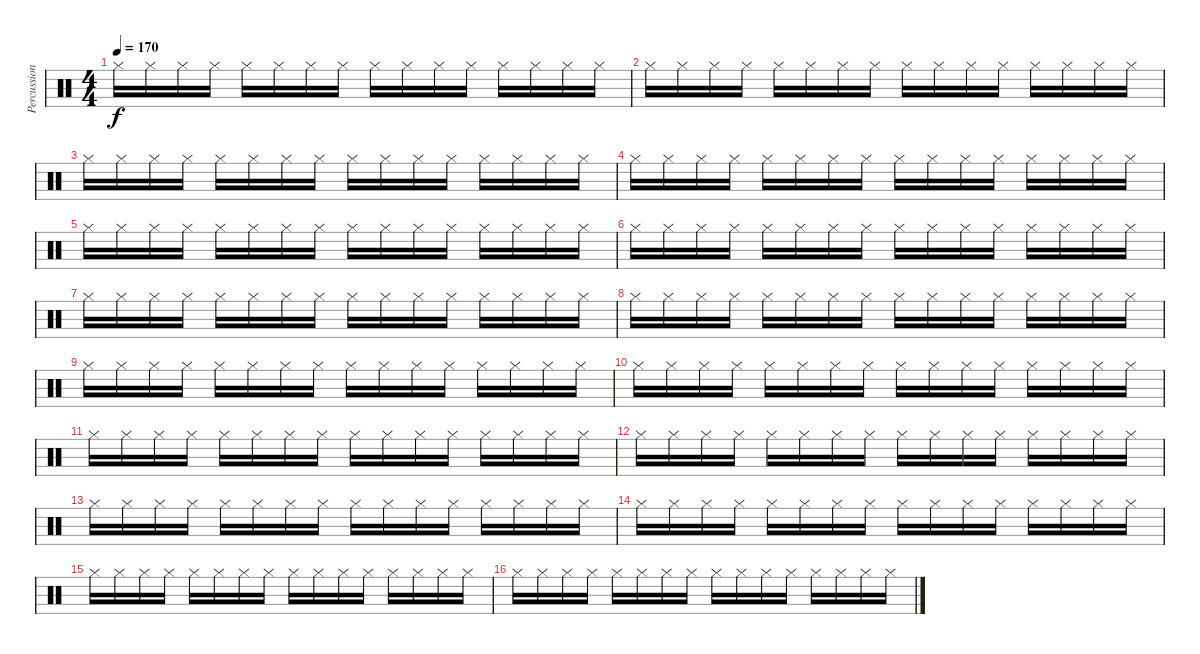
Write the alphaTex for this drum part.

\track ("Percussion" "Percussion") {instrument percussion}
\staff {score}
\articulation defaults
\ts (4 4)
\tempo 170
\clef neutral
\ks c "Hi-Hat (closed)".16{dy f} "Hi-Hat (closed)".16 "Hi-Hat (closed)".16 "Hi-Hat (closed)".16 "Hi-Hat (closed)".16 "Hi-Hat (closed)".16 "Hi-Hat (closed)".16 "Hi-Hat (closed)".16 "Hi-Hat (closed)".16 "Hi-Hat (closed)".16 "Hi-Hat (closed)".16 "Hi-Hat (closed)".16 "Hi-Hat (closed)".16 "Hi-Hat (closed)".16 "Hi-Hat (closed)".16 "Hi-Hat (closed)".16
|
"Hi-Hat (closed)".16 "Hi-Hat (closed)".16 "Hi-Hat (closed)".16 "Hi-Hat (closed)".16 "Hi-Hat (closed)".16 "Hi-Hat (closed)".16 "Hi-Hat (closed)".16 "Hi-Hat (closed)".16 "Hi-Hat (closed)".16 "Hi-Hat (closed)".16 "Hi-Hat (closed)".16 "Hi-Hat (closed)".16 "Hi-Hat (closed)".16 "Hi-Hat (closed)".16 "Hi-Hat (closed)".16 "Hi-Hat (closed)".16 |
"Hi-Hat (closed)".16 "Hi-Hat (closed)".16 "Hi-Hat (closed)".16 "Hi-Hat (closed)".16 "Hi-Hat (closed)".16 "Hi-Hat (closed)".16 "Hi-Hat (closed)".16 "Hi-Hat (closed)".16 "Hi-Hat (closed)".16 "Hi-Hat (closed)".16 "Hi-Hat (closed)".16 "Hi-Hat (closed)".16 "Hi-Hat (closed)".16 "Hi-Hat (closed)".16 "Hi-Hat (closed)".16 "Hi-Hat (closed)".16 |
"Hi-Hat (closed)".16 "Hi-Hat (closed)".16 "Hi-Hat (closed)".16 "Hi-Hat (closed)".16 "Hi-Hat (closed)".16 "Hi-Hat (closed)".16 "Hi-Hat (closed)".16 "Hi-Hat (closed)".16 "Hi-Hat (closed)".16 "Hi-Hat (closed)".16 "Hi-Hat (closed)".16 "Hi-Hat (closed)".16 "Hi-Hat (closed)".16 "Hi-Hat (closed)".16 "Hi-Hat (closed)".16 "Hi-Hat (closed)".16 |
"Hi-Hat (closed)".16 "Hi-Hat (closed)".16 "Hi-Hat (closed)".16 "Hi-Hat (closed)".16 "Hi-Hat (closed)".16 "Hi-Hat (closed)".16 "Hi-Hat (closed)".16 "Hi-Hat (closed)".16 "Hi-Hat (closed)".16 "Hi-Hat (closed)".16 "Hi-Hat (closed)".16 "Hi-Hat (closed)".16 "Hi-Hat (closed)".16 "Hi-Hat (closed)".16 "Hi-Hat (closed)".16 "Hi-Hat (closed)".16 |
"Hi-Hat (closed)".16 "Hi-Hat (closed)".16 "Hi-Hat (closed)".16 "Hi-Hat (closed)".16 "Hi-Hat (closed)".16 "Hi-Hat (closed)".16 "Hi-Hat (closed)".16 "Hi-Hat (closed)".16 "Hi-Hat (closed)".16 "Hi-Hat (closed)".16 "Hi-Hat (closed)".16 "Hi-Hat (closed)".16 "Hi-Hat (closed)".16 "Hi-Hat (closed)".16 "Hi-Hat (closed)".16 "Hi-Hat (closed)".16 |
"Hi-Hat (closed)".16 "Hi-Hat (closed)".16 "Hi-Hat (closed)".16 "Hi-Hat (closed)".16 "Hi-Hat (closed)".16 "Hi-Hat (closed)".16 "Hi-Hat (closed)".16 "Hi-Hat (closed)".16 "Hi-Hat (closed)".16 "Hi-Hat (closed)".16 "Hi-Hat (closed)".16 "Hi-Hat (closed)".16 "Hi-Hat (closed)".16 "Hi-Hat (closed)".16 "Hi-Hat (closed)".16 "Hi-Hat (closed)".16 |
"Hi-Hat (closed)".16 "Hi-Hat (closed)".16 "Hi-Hat (closed)".16 "Hi-Hat (closed)".16 "Hi-Hat (closed)".16 "Hi-Hat (closed)".16 "Hi-Hat (closed)".16 "Hi-Hat (closed)".16 "Hi-Hat (closed)".16 "Hi-Hat (closed)".16 "Hi-Hat (closed)".16 "Hi-Hat (closed)".16 "Hi-Hat (closed)".16 "Hi-Hat (closed)".16 "Hi-Hat (closed)".16 "Hi-Hat (closed)".16 |
"Hi-Hat (closed)".16 "Hi-Hat (closed)".16 "Hi-Hat (closed)".16 "Hi-Hat (closed)".16 "Hi-Hat (closed)".16 "Hi-Hat (closed)".16 "Hi-Hat (closed)".16 "Hi-Hat (closed)".16 "Hi-Hat (closed)".16 "Hi-Hat (closed)".16 "Hi-Hat (closed)".16 "Hi-Hat (closed)".16 "Hi-Hat (closed)".16 "Hi-Hat (closed)".16 "Hi-Hat (closed)".16 "Hi-Hat (closed)".16 |
"Hi-Hat (closed)".16 "Hi-Hat (closed)".16 "Hi-Hat (closed)".16 "Hi-Hat (closed)".16 "Hi-Hat (closed)".16 "Hi-Hat (closed)".16 "Hi-Hat (closed)".16 "Hi-Hat (closed)".16 "Hi-Hat (closed)".16 "Hi-Hat (closed)".16 "Hi-Hat (closed)".16 "Hi-Hat (closed)".16 "Hi-Hat (closed)".16 "Hi-Hat (closed)".16 "Hi-Hat (closed)".16 "Hi-Hat (closed)".16 |
"Hi-Hat (closed)".16 "Hi-Hat (closed)".16 "Hi-Hat (closed)".16 "Hi-Hat (closed)".16 "Hi-Hat (closed)".16 "Hi-Hat (closed)".16 "Hi-Hat (closed)".16 "Hi-Hat (closed)".16 "Hi-Hat (closed)".16 "Hi-Hat (closed)".16 "Hi-Hat (closed)".16 "Hi-Hat (closed)".16 "Hi-Hat (closed)".16 "Hi-Hat (closed)".16 "Hi-Hat (closed)".16 "Hi-Hat (closed)".16 |
"Hi-Hat (closed)".16 "Hi-Hat (closed)".16 "Hi-Hat (closed)".16 "Hi-Hat (closed)".16 "Hi-Hat (closed)".16 "Hi-Hat (closed)".16 "Hi-Hat (closed)".16 "Hi-Hat (closed)".16 "Hi-Hat (closed)".16 "Hi-Hat (closed)".16 "Hi-Hat (closed)".16 "Hi-Hat (closed)".16 "Hi-Hat (closed)".16 "Hi-Hat (closed)".16 "Hi-Hat (closed)".16 "Hi-Hat (closed)".16 |
"Hi-Hat (closed)".16 "Hi-Hat (closed)".16 "Hi-Hat (closed)".16 "Hi-Hat (closed)".16 "Hi-Hat (closed)".16 "Hi-Hat (closed)".16 "Hi-Hat (closed)".16 "Hi-Hat (closed)".16 "Hi-Hat (closed)".16 "Hi-Hat (closed)".16 "Hi-Hat (closed)".16 "Hi-Hat (closed)".16 "Hi-Hat (closed)".16 "Hi-Hat (closed)".16 "Hi-Hat (closed)".16 "Hi-Hat (closed)".16 |
"Hi-Hat (closed)".16 "Hi-Hat (closed)".16 "Hi-Hat (closed)".16 "Hi-Hat (closed)".16 "Hi-Hat (closed)".16 "Hi-Hat (closed)".16 "Hi-Hat (closed)".16 "Hi-Hat (closed)".16 "Hi-Hat (closed)".16 "Hi-Hat (closed)".16 "Hi-Hat (closed)".16 "Hi-Hat (closed)".16 "Hi-Hat (closed)".16 "Hi-Hat (closed)".16 "Hi-Hat (closed)".16 "Hi-Hat (closed)".16 |
"Hi-Hat (closed)".16 "Hi-Hat (closed)".16 "Hi-Hat (closed)".16 "Hi-Hat (closed)".16 "Hi-Hat (closed)".16 "Hi-Hat (closed)".16 "Hi-Hat (closed)".16 "Hi-Hat (closed)".16 "Hi-Hat (closed)".16 "Hi-Hat (closed)".16 "Hi-Hat (closed)".16 "Hi-Hat (closed)".16 "Hi-Hat (closed)".16 "Hi-Hat (closed)".16 "Hi-Hat (closed)".16 "Hi-Hat (closed)".16 |
"Hi-Hat (closed)".16 "Hi-Hat (closed)".16 "Hi-Hat (closed)".16 "Hi-Hat (closed)".16 "Hi-Hat (closed)".16 "Hi-Hat (closed)".16 "Hi-Hat (closed)".16 "Hi-Hat (closed)".16 "Hi-Hat (closed)".16 "Hi-Hat (closed)".16 "Hi-Hat (closed)".16 "Hi-Hat (closed)".16 "Hi-Hat (closed)".16 "Hi-Hat (closed)".16 "Hi-Hat (closed)".16 "Hi-Hat (closed)".16
